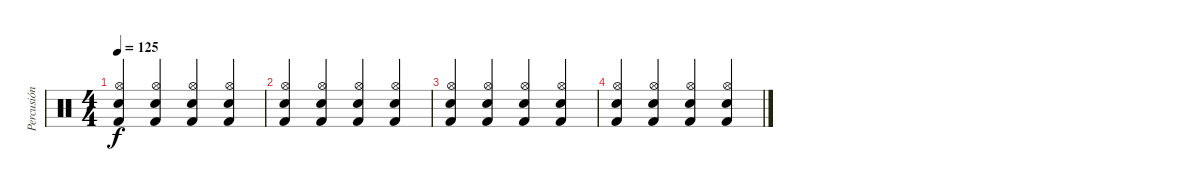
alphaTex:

\track ("Percusión" "Percusión") {instrument percussion}
\staff {score}
\articulation defaults
\ts (4 4)
\tempo 125
\clef neutral
\ks c
("Electric Snare (hit)" "Hi-Hat (open)" "Kick (hit) 2").4{dy f} ("Electric Snare (hit)" "Hi-Hat (open)" "Kick (hit) 2").4 ("Electric Snare (hit)" "Hi-Hat (open)" "Kick (hit) 2").4 ("Electric Snare (hit)" "Hi-Hat (open)" "Kick (hit) 2").4 |
("Electric Snare (hit)" "Hi-Hat (open)" "Kick (hit) 2").4 ("Electric Snare (hit)" "Hi-Hat (open)" "Kick (hit) 2").4 ("Electric Snare (hit)" "Hi-Hat (open)" "Kick (hit) 2").4 ("Electric Snare (hit)" "Hi-Hat (open)" "Kick (hit) 2").4 |
("Electric Snare (hit)" "Hi-Hat (open)" "Kick (hit) 2").4 ("Electric Snare (hit)" "Hi-Hat (open)" "Kick (hit) 2").4 ("Electric Snare (hit)" "Hi-Hat (open)" "Kick (hit) 2").4 ("Electric Snare (hit)" "Hi-Hat (open)" "Kick (hit) 2").4 |
("Electric Snare (hit)" "Hi-Hat (open)" "Kick (hit) 2").4 ("Electric Snare (hit)" "Hi-Hat (open)" "Kick (hit) 2").4 ("Electric Snare (hit)" "Hi-Hat (open)" "Kick (hit) 2").4 ("Electric Snare (hit)" "Hi-Hat (open)" "Kick (hit) 2").4
